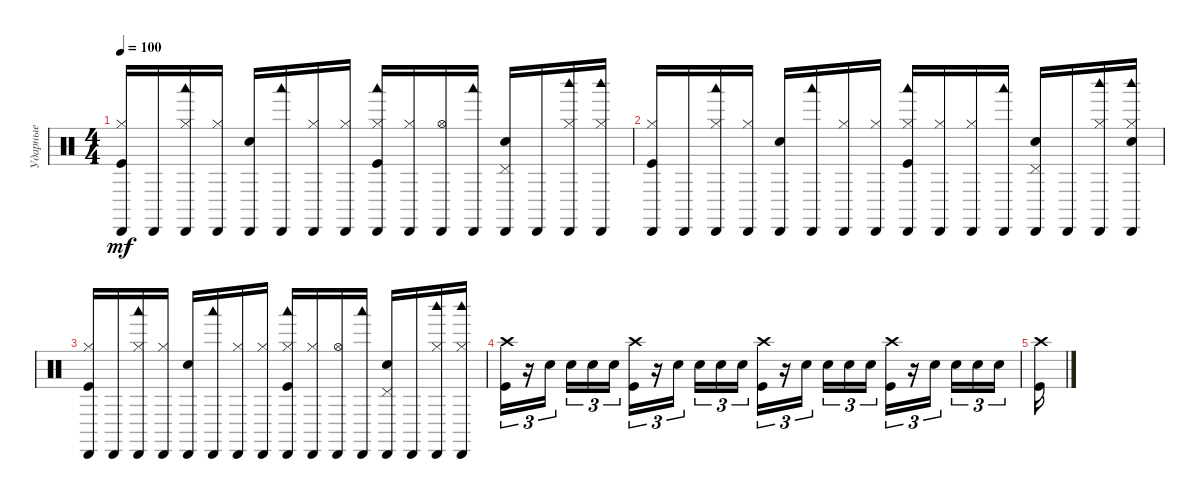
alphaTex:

\track ("Ударные" "Ударные") {instrument percussion}
\staff {score}
\articulation defaults
\ts (4 4)
\tempo 100
\clef neutral
\ks c
("Kick (hit)" "Hi-Hat (closed)" "Cabasa (hit)").16{dy mf} "Cabasa (hit)".16 ("Hi-Hat (closed)" "Woodblock low (hit)" "Cabasa (hit)").16 ("Hi-Hat (closed)" "Cabasa (hit)").16 ("Snare (hit) 2" "Cabasa (hit)").16 ("Woodblock low (hit)" "Cabasa (hit)").16 ("Hi-Hat (closed)" "Cabasa (hit)").16 ("Hi-Hat (closed)" "Cabasa (hit)").16 ("Kick (hit)" "Hi-Hat (closed)" "Woodblock low (hit)" "Cabasa (hit)").16 ("Hi-Hat (closed)" "Cabasa (hit)").16 ("Hi-Hat (open)" "Cabasa (hit)").16 ("Woodblock low (hit)" "Cabasa (hit)").16 ("Snare (hit) 2" "Pedal Hi-Hat (hit)" "Cabasa (hit)").16 "Cabasa (hit)".16 ("Hi-Hat (closed)" "Woodblock high (hit)" "Cabasa (hit)").16 ("Hi-Hat (closed)" "Woodblock high (hit)" "Cabasa (hit)").16 |
("Kick (hit)" "Hi-Hat (closed)" "Cabasa (hit)").16 "Cabasa (hit)".16 ("Hi-Hat (closed)" "Woodblock low (hit)" "Cabasa (hit)").16 ("Hi-Hat (closed)" "Cabasa (hit)").16 ("Snare (hit) 2" "Cabasa (hit)").16 ("Woodblock low (hit)" "Cabasa (hit)").16 ("Hi-Hat (closed)" "Cabasa (hit)").16 ("Hi-Hat (closed)" "Cabasa (hit)").16 ("Kick (hit)" "Hi-Hat (closed)" "Woodblock low (hit)" "Cabasa (hit)").16 ("Hi-Hat (closed)" "Cabasa (hit)").16 ("Hi-Hat (closed)" "Cabasa (hit)").16 ("Woodblock low (hit)" "Cabasa (hit)").16 ("Snare (hit) 2" "Pedal Hi-Hat (hit)" "Cabasa (hit)").16 "Cabasa (hit)".16 ("Hi-Hat (closed)" "Woodblock high (hit)" "Cabasa (hit)").16 ("Snare (hit) 2" "Hi-Hat (closed)" "Woodblock high (hit)" "Cabasa (hit)").16 |
("Kick (hit)" "Hi-Hat (closed)" "Cabasa (hit)").16 "Cabasa (hit)".16 ("Hi-Hat (closed)" "Woodblock low (hit)" "Cabasa (hit)").16 ("Hi-Hat (closed)" "Cabasa (hit)").16 ("Snare (hit) 2" "Cabasa (hit)").16 ("Woodblock low (hit)" "Cabasa (hit)").16 ("Hi-Hat (closed)" "Cabasa (hit)").16 ("Hi-Hat (closed)" "Cabasa (hit)").16 ("Kick (hit)" "Hi-Hat (closed)" "Woodblock low (hit)" "Cabasa (hit)").16 ("Hi-Hat (closed)" "Cabasa (hit)").16 ("Hi-Hat (open)" "Cabasa (hit)").16 ("Woodblock low (hit)" "Cabasa (hit)").16 ("Snare (hit) 2" "Pedal Hi-Hat (hit)" "Cabasa (hit)").16 "Cabasa (hit)".16 ("Hi-Hat (closed)" "Woodblock high (hit)" "Cabasa (hit)").16 ("Hi-Hat (closed)" "Woodblock high (hit)" "Cabasa (hit)").16 |
("Kick (hit)" "Crash high (hit)").16{tu (3 2)} r.16{tu (3 2)} "Snare (hit) 2".16{tu (3 2) beam splitsecondary} "Snare (hit) 2".16{tu (3 2)} "Snare (hit) 2".16{tu (3 2)} "Snare (hit) 2".16{tu (3 2)} ("Kick (hit)" "Crash high (hit)").16{tu (3 2)} r.16{tu (3 2)} "Snare (hit) 2".16{tu (3 2) beam splitsecondary} "Snare (hit) 2".16{tu (3 2)} "Snare (hit) 2".16{tu (3 2)} "Snare (hit) 2".16{tu (3 2)} ("Kick (hit)" "Crash high (hit)").16{tu (3 2)} r.16{tu (3 2)} "Snare (hit) 2".16{tu (3 2) beam splitsecondary} "Snare (hit) 2".16{tu (3 2)} "Snare (hit) 2".16{tu (3 2)} "Snare (hit) 2".16{tu (3 2)} ("Kick (hit)" "Crash high (hit)").16{tu (3 2)} r.16{tu (3 2)} "Snare (hit) 2".16{tu (3 2) beam splitsecondary} "Snare (hit) 2".16{tu (3 2)} "Snare (hit) 2".16{tu (3 2)} "Snare (hit) 2".16{tu (3 2)} |
("Kick (hit)" "Crash high (hit)").16
